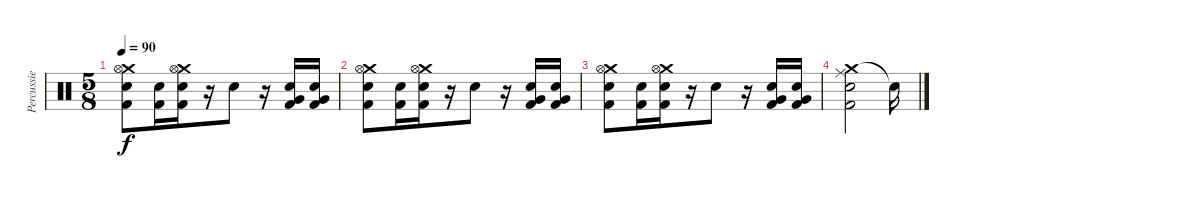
\track ("Percussie" "Percussie") {instrument percussion}
\staff {score}
\articulation defaults
\ts (5 8)
\tempo 90
\clef neutral
\ks c
("Crash medium (hit)" "Hi-Hat (open)" "Snare (hit) 2" "Kick (hit) 2").8{dy f} ("Snare (hit) 2" "Kick (hit) 2").16 ("Crash medium (hit)" "Hi-Hat (open)" "Snare (hit) 2" "Kick (hit) 2").16 r.16 "Snare (hit) 2".8 r.16 ("Very Low Tom (hit)" "Snare (hit) 2" "Kick (hit) 2").16 ("Very Low Tom (hit)" "Snare (hit) 2" "Kick (hit) 2").16 |
("Crash medium (hit)" "Hi-Hat (open)" "Snare (hit) 2" "Kick (hit) 2").8 ("Snare (hit) 2" "Kick (hit) 2").16 ("Crash medium (hit)" "Hi-Hat (open)" "Snare (hit) 2" "Kick (hit) 2").16 r.16 "Snare (hit) 2".8 r.16 ("Very Low Tom (hit)" "Snare (hit) 2" "Kick (hit) 2").16 ("Very Low Tom (hit)" "Snare (hit) 2" "Kick (hit) 2").16 |
("Crash medium (hit)" "Hi-Hat (open)" "Snare (hit) 2" "Kick (hit) 2").8 ("Snare (hit) 2" "Kick (hit) 2").16 ("Crash medium (hit)" "Hi-Hat (open)" "Snare (hit) 2" "Kick (hit) 2").16 r.16 "Snare (hit) 2".8 r.16 ("Very Low Tom (hit)" "Snare (hit) 2" "Kick (hit) 2").16 ("Very Low Tom (hit)" "Snare (hit) 2" "Kick (hit) 2").16 |
("Crash medium (hit)" "Ride (middle)" "Snare (hit) 2" "Kick (hit) 2").2 "Snare (hit)"{t}.16
